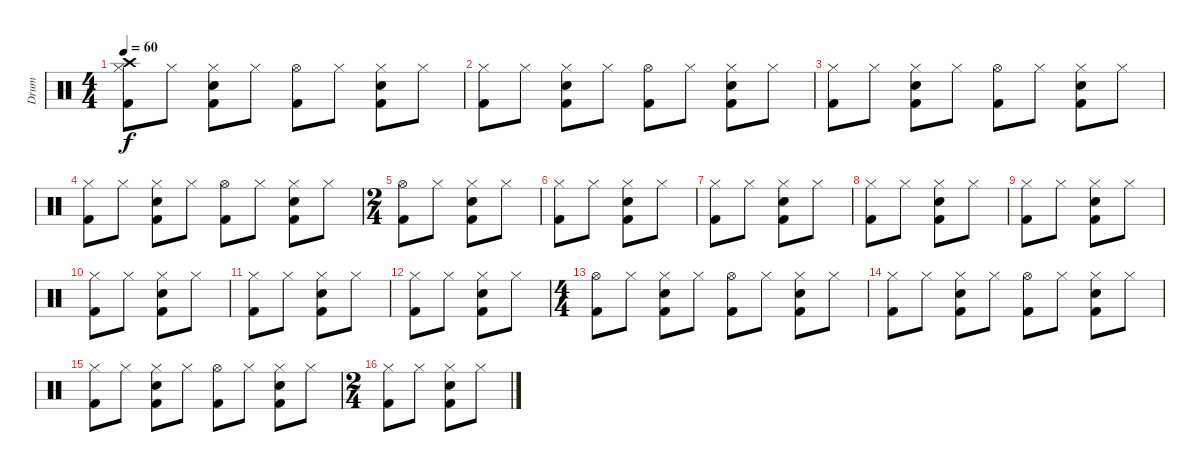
\track ("Drum" "Drum") {instrument percussion}
\staff {score}
\articulation defaults
\ts (4 4)
\tempo 60
\clef neutral
\ks c
("Hi-Hat (closed)" "Crash high (hit)" "Kick (hit) 2").8{dy f} "Hi-Hat (closed)".8 ("Hi-Hat (closed)" "Snare (hit) 2" "Kick (hit) 2").8 "Hi-Hat (closed)".8 ("Hi-Hat (open)" "Kick (hit) 2").8 "Hi-Hat (closed)".8 ("Snare (hit) 2" "Hi-Hat (closed)" "Kick (hit) 2").8 "Hi-Hat (closed)".8 |
("Hi-Hat (closed)" "Kick (hit) 2").8 "Hi-Hat (closed)".8 ("Hi-Hat (closed)" "Snare (hit) 2" "Kick (hit) 2").8 "Hi-Hat (closed)".8 ("Hi-Hat (open)" "Kick (hit) 2").8 "Hi-Hat (closed)".8 ("Snare (hit) 2" "Hi-Hat (closed)" "Kick (hit) 2").8 "Hi-Hat (closed)".8 |
("Hi-Hat (closed)" "Kick (hit) 2").8 "Hi-Hat (closed)".8 ("Hi-Hat (closed)" "Snare (hit) 2" "Kick (hit) 2").8 "Hi-Hat (closed)".8 ("Hi-Hat (open)" "Kick (hit) 2").8 "Hi-Hat (closed)".8 ("Snare (hit) 2" "Hi-Hat (closed)" "Kick (hit) 2").8 "Hi-Hat (closed)".8 |
("Hi-Hat (closed)" "Kick (hit) 2").8 "Hi-Hat (closed)".8 ("Hi-Hat (closed)" "Snare (hit) 2" "Kick (hit) 2").8 "Hi-Hat (closed)".8 ("Hi-Hat (open)" "Kick (hit) 2").8 "Hi-Hat (closed)".8 ("Snare (hit) 2" "Hi-Hat (closed)" "Kick (hit) 2").8 "Hi-Hat (closed)".8 |
\ts (2 4)
("Hi-Hat (open)" "Kick (hit) 2").8 "Hi-Hat (closed)".8 ("Snare (hit) 2" "Hi-Hat (closed)" "Kick (hit) 2").8 "Hi-Hat (closed)".8 |
("Hi-Hat (closed)" "Kick (hit) 2").8 "Hi-Hat (closed)".8 ("Hi-Hat (closed)" "Snare (hit) 2" "Kick (hit) 2").8 "Hi-Hat (closed)".8 |
("Hi-Hat (closed)" "Kick (hit) 2").8 "Hi-Hat (closed)".8 ("Hi-Hat (closed)" "Snare (hit) 2" "Kick (hit) 2").8 "Hi-Hat (closed)".8 |
("Hi-Hat (closed)" "Kick (hit) 2").8 "Hi-Hat (closed)".8 ("Hi-Hat (closed)" "Snare (hit) 2" "Kick (hit) 2").8 "Hi-Hat (closed)".8 |
("Hi-Hat (closed)" "Kick (hit) 2").8 "Hi-Hat (closed)".8 ("Hi-Hat (closed)" "Snare (hit) 2" "Kick (hit) 2").8 "Hi-Hat (closed)".8 |
("Hi-Hat (closed)" "Kick (hit) 2").8 "Hi-Hat (closed)".8 ("Hi-Hat (closed)" "Snare (hit) 2" "Kick (hit) 2").8 "Hi-Hat (closed)".8 |
("Hi-Hat (closed)" "Kick (hit) 2").8 "Hi-Hat (closed)".8 ("Hi-Hat (closed)" "Snare (hit) 2" "Kick (hit) 2").8 "Hi-Hat (closed)".8 |
("Hi-Hat (closed)" "Kick (hit) 2").8 "Hi-Hat (closed)".8 ("Hi-Hat (closed)" "Snare (hit) 2" "Kick (hit) 2").8 "Hi-Hat (closed)".8 |
\ts (4 4)
("Hi-Hat (open)" "Kick (hit) 2").8 "Hi-Hat (closed)".8 ("Snare (hit) 2" "Hi-Hat (closed)" "Kick (hit) 2").8 "Hi-Hat (closed)".8 ("Hi-Hat (open)" "Kick (hit) 2").8 "Hi-Hat (closed)".8 ("Snare (hit) 2" "Hi-Hat (closed)" "Kick (hit) 2").8 "Hi-Hat (closed)".8 |
("Hi-Hat (closed)" "Kick (hit) 2").8 "Hi-Hat (closed)".8 ("Hi-Hat (closed)" "Snare (hit) 2" "Kick (hit) 2").8 "Hi-Hat (closed)".8 ("Hi-Hat (open)" "Kick (hit) 2").8 "Hi-Hat (closed)".8 ("Snare (hit) 2" "Hi-Hat (closed)" "Kick (hit) 2").8 "Hi-Hat (closed)".8 |
("Hi-Hat (closed)" "Kick (hit) 2").8 "Hi-Hat (closed)".8 ("Hi-Hat (closed)" "Snare (hit) 2" "Kick (hit) 2").8 "Hi-Hat (closed)".8 ("Hi-Hat (open)" "Kick (hit) 2").8 "Hi-Hat (closed)".8 ("Snare (hit) 2" "Hi-Hat (closed)" "Kick (hit) 2").8 "Hi-Hat (closed)".8 |
\ts (2 4)
("Hi-Hat (closed)" "Kick (hit) 2").8 "Hi-Hat (closed)".8 ("Hi-Hat (closed)" "Snare (hit) 2" "Kick (hit) 2").8 "Hi-Hat (closed)".8
